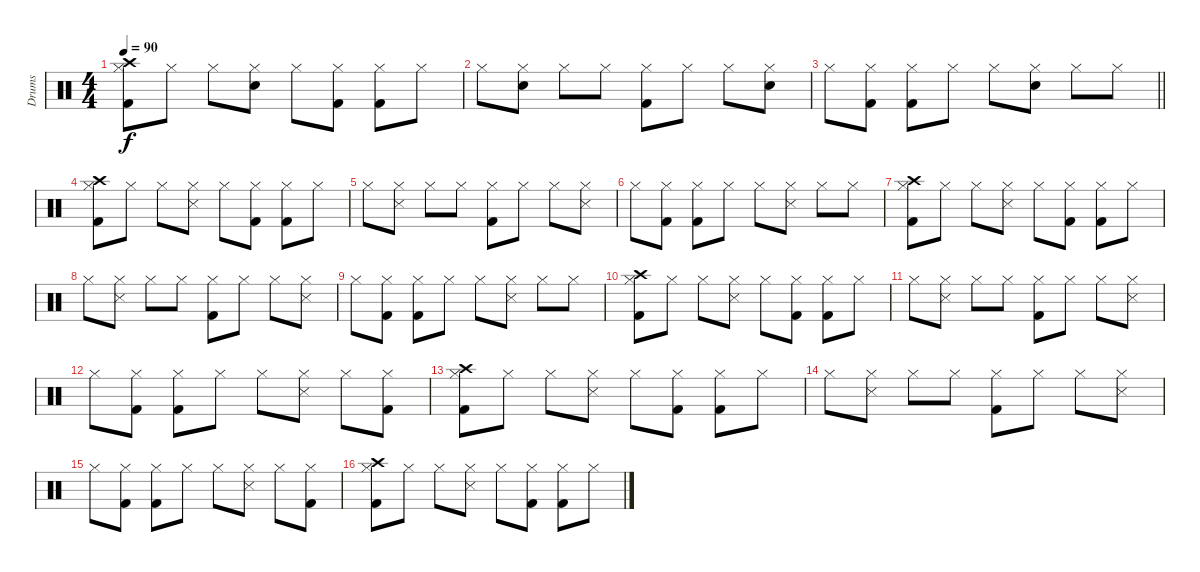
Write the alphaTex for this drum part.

\track ("Drums" "Drums") {instrument percussion}
\staff {score}
\articulation defaults
\ts (4 4)
\tempo 90
\clef neutral
\ks c
("Hi-Hat (closed)" "Kick (hit) 2" "Crash high (hit)").8{dy f} "Hi-Hat (closed)".8 "Hi-Hat (closed)".8 ("Hi-Hat (closed)" "Electric Snare (hit)").8 "Hi-Hat (closed)".8 ("Hi-Hat (closed)" "Kick (hit) 2").8 ("Hi-Hat (closed)" "Kick (hit) 2").8 "Hi-Hat (closed)".8 |
"Hi-Hat (closed)".8 ("Hi-Hat (closed)" "Electric Snare (hit)").8 "Hi-Hat (closed)".8 "Hi-Hat (closed)".8 ("Hi-Hat (closed)" "Kick (hit) 2").8 "Hi-Hat (closed)".8 "Hi-Hat (closed)".8 ("Hi-Hat (closed)" "Electric Snare (hit)").8 |
\barLineRight lightlight "Hi-Hat (closed)".8
("Hi-Hat (closed)" "Kick (hit) 2").8 ("Hi-Hat (closed)" "Kick (hit) 2").8 "Hi-Hat (closed)".8 "Hi-Hat (closed)".8 ("Hi-Hat (closed)" "Electric Snare (hit)").8 "Hi-Hat (closed)".8 "Hi-Hat (closed)".8 |
("Hi-Hat (closed)" "Kick (hit) 2" "Crash high (hit)").8 "Hi-Hat (closed)".8 "Hi-Hat (closed)".8 ("Hi-Hat (closed)" "Metronome (hit)").8 "Hi-Hat (closed)".8 ("Hi-Hat (closed)" "Kick (hit) 2").8 ("Hi-Hat (closed)" "Kick (hit) 2").8 "Hi-Hat (closed)".8 |
"Hi-Hat (closed)".8 ("Hi-Hat (closed)" "Metronome (hit)").8 "Hi-Hat (closed)".8 "Hi-Hat (closed)".8 ("Hi-Hat (closed)" "Kick (hit) 2").8 "Hi-Hat (closed)".8 "Hi-Hat (closed)".8 ("Hi-Hat (closed)" "Metronome (hit)").8 |
"Hi-Hat (closed)".8 ("Hi-Hat (closed)" "Kick (hit) 2").8 ("Hi-Hat (closed)" "Kick (hit) 2").8 "Hi-Hat (closed)".8 "Hi-Hat (closed)".8 ("Hi-Hat (closed)" "Metronome (hit)").8 "Hi-Hat (closed)".8 "Hi-Hat (closed)".8 |
("Hi-Hat (closed)" "Kick (hit) 2" "Crash high (hit)").8 "Hi-Hat (closed)".8 "Hi-Hat (closed)".8 ("Hi-Hat (closed)" "Metronome (hit)").8 "Hi-Hat (closed)".8 ("Hi-Hat (closed)" "Kick (hit) 2").8 ("Hi-Hat (closed)" "Kick (hit) 2").8 "Hi-Hat (closed)".8 |
"Hi-Hat (closed)".8 ("Hi-Hat (closed)" "Metronome (hit)").8 "Hi-Hat (closed)".8 "Hi-Hat (closed)".8 ("Hi-Hat (closed)" "Kick (hit) 2").8 "Hi-Hat (closed)".8 "Hi-Hat (closed)".8 ("Hi-Hat (closed)" "Metronome (hit)").8 |
"Hi-Hat (closed)".8 ("Hi-Hat (closed)" "Kick (hit) 2").8 ("Hi-Hat (closed)" "Kick (hit) 2").8 "Hi-Hat (closed)".8 "Hi-Hat (closed)".8 ("Hi-Hat (closed)" "Metronome (hit)").8 "Hi-Hat (closed)".8 "Hi-Hat (closed)".8 |
("Hi-Hat (closed)" "Kick (hit) 2" "Crash high (hit)").8 "Hi-Hat (closed)".8 "Hi-Hat (closed)".8 ("Hi-Hat (closed)" "Metronome (hit)").8 "Hi-Hat (closed)".8 ("Hi-Hat (closed)" "Kick (hit) 2").8 ("Hi-Hat (closed)" "Kick (hit) 2").8 "Hi-Hat (closed)".8 |
"Hi-Hat (closed)".8 ("Hi-Hat (closed)" "Metronome (hit)").8 "Hi-Hat (closed)".8 "Hi-Hat (closed)".8 ("Hi-Hat (closed)" "Kick (hit) 2").8 "Hi-Hat (closed)".8 "Hi-Hat (closed)".8 ("Hi-Hat (closed)" "Metronome (hit)").8 |
"Hi-Hat (closed)".8 ("Hi-Hat (closed)" "Kick (hit) 2").8 ("Hi-Hat (closed)" "Kick (hit) 2").8 "Hi-Hat (closed)".8 "Hi-Hat (closed)".8 ("Hi-Hat (closed)" "Metronome (hit)").8 "Hi-Hat (closed)".8 ("Hi-Hat (closed)" "Kick (hit) 2").8 |
("Hi-Hat (closed)" "Kick (hit) 2" "Crash high (hit)").8 "Hi-Hat (closed)".8 "Hi-Hat (closed)".8 ("Hi-Hat (closed)" "Metronome (hit)").8 "Hi-Hat (closed)".8 ("Hi-Hat (closed)" "Kick (hit) 2").8 ("Hi-Hat (closed)" "Kick (hit) 2").8 "Hi-Hat (closed)".8 |
"Hi-Hat (closed)".8 ("Hi-Hat (closed)" "Metronome (hit)").8 "Hi-Hat (closed)".8 "Hi-Hat (closed)".8 ("Hi-Hat (closed)" "Kick (hit) 2").8 "Hi-Hat (closed)".8 "Hi-Hat (closed)".8 ("Hi-Hat (closed)" "Metronome (hit)").8 |
"Hi-Hat (closed)".8 ("Hi-Hat (closed)" "Kick (hit) 2").8 ("Hi-Hat (closed)" "Kick (hit) 2").8 "Hi-Hat (closed)".8 "Hi-Hat (closed)".8 ("Hi-Hat (closed)" "Metronome (hit)").8 "Hi-Hat (closed)".8 ("Hi-Hat (closed)" "Kick (hit) 2").8 |
("Hi-Hat (closed)" "Kick (hit) 2" "Crash high (hit)").8 "Hi-Hat (closed)".8 "Hi-Hat (closed)".8 ("Hi-Hat (closed)" "Metronome (hit)").8 "Hi-Hat (closed)".8 ("Hi-Hat (closed)" "Kick (hit) 2").8 ("Hi-Hat (closed)" "Kick (hit) 2").8 "Hi-Hat (closed)".8
